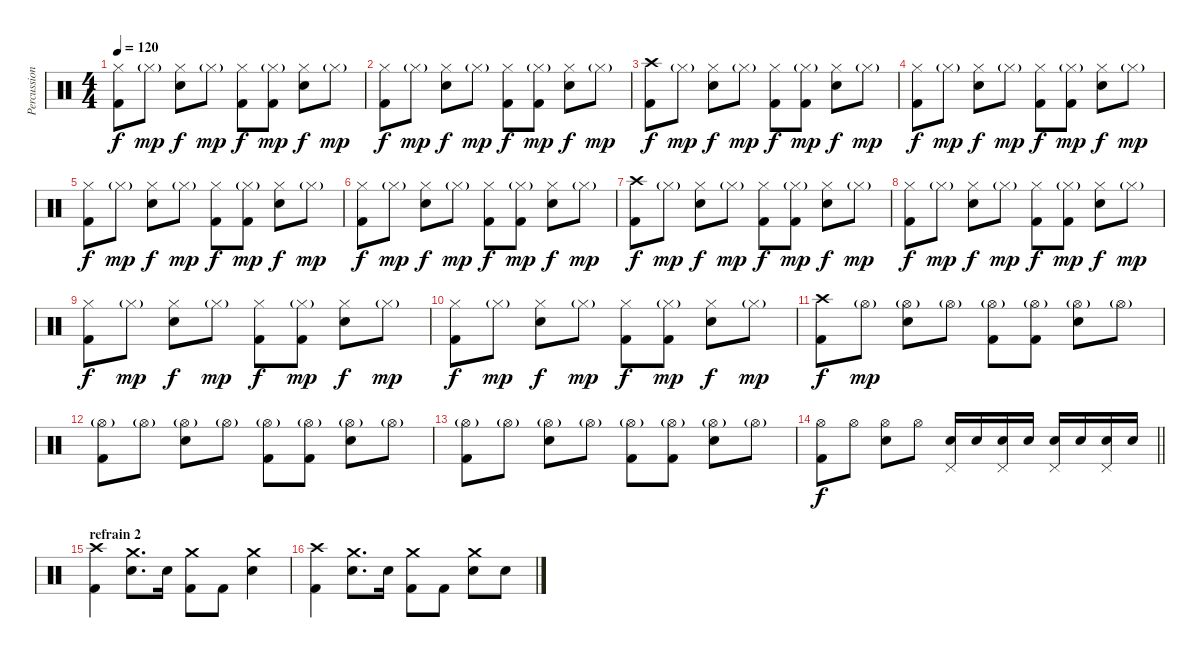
\track ("Percussions" "Percussion") {instrument percussion}
\staff {score}
\articulation defaults
\ts (4 4)
\tempo 120
\clef neutral
\ks c
("Hi-Hat (closed)" "Kick (hit) 2").8{dy f} "Hi-Hat (closed)"{g}.8{dy mp} ("Hi-Hat (closed)" "Snare (hit) 2").8{dy f} "Hi-Hat (closed)"{g}.8{dy mp} ("Hi-Hat (closed)" "Kick (hit) 2").8{dy f} ("Hi-Hat (closed)"{g} "Kick (hit) 2").8{dy mp} ("Hi-Hat (closed)" "Snare (hit) 2").8{dy f} "Hi-Hat (closed)"{g}.8{dy mp} |
("Hi-Hat (closed)" "Kick (hit) 2").8{dy f} "Hi-Hat (closed)"{g}.8{dy mp} ("Hi-Hat (closed)" "Snare (hit) 2").8{dy f} "Hi-Hat (closed)"{g}.8{dy mp} ("Hi-Hat (closed)" "Kick (hit) 2").8{dy f} ("Hi-Hat (closed)"{g} "Kick (hit) 2").8{dy mp} ("Hi-Hat (closed)" "Snare (hit) 2").8{dy f} "Hi-Hat (closed)"{g}.8{dy mp} |
("Crash high (hit)" "Kick (hit) 2").8{dy f} "Hi-Hat (closed)"{g}.8{dy mp} ("Hi-Hat (closed)" "Snare (hit) 2").8{dy f} "Hi-Hat (closed)"{g}.8{dy mp} ("Hi-Hat (closed)" "Kick (hit) 2").8{dy f} ("Hi-Hat (closed)"{g} "Kick (hit) 2").8{dy mp} ("Hi-Hat (closed)" "Snare (hit) 2").8{dy f} "Hi-Hat (closed)"{g}.8{dy mp} |
("Hi-Hat (closed)" "Kick (hit) 2").8{dy f} "Hi-Hat (closed)"{g}.8{dy mp} ("Hi-Hat (closed)" "Snare (hit) 2").8{dy f} "Hi-Hat (closed)"{g}.8{dy mp} ("Hi-Hat (closed)" "Kick (hit) 2").8{dy f} ("Hi-Hat (closed)"{g} "Kick (hit) 2").8{dy mp} ("Hi-Hat (closed)" "Snare (hit) 2").8{dy f} "Hi-Hat (closed)"{g}.8{dy mp} |
("Hi-Hat (closed)" "Kick (hit) 2").8{dy f} "Hi-Hat (closed)"{g}.8{dy mp} ("Hi-Hat (closed)" "Snare (hit) 2").8{dy f} "Hi-Hat (closed)"{g}.8{dy mp} ("Hi-Hat (closed)" "Kick (hit) 2").8{dy f} ("Hi-Hat (closed)"{g} "Kick (hit) 2").8{dy mp} ("Hi-Hat (closed)" "Snare (hit) 2").8{dy f} "Hi-Hat (closed)"{g}.8{dy mp} |
("Hi-Hat (closed)" "Kick (hit) 2").8{dy f} "Hi-Hat (closed)"{g}.8{dy mp} ("Hi-Hat (closed)" "Snare (hit) 2").8{dy f} "Hi-Hat (closed)"{g}.8{dy mp} ("Hi-Hat (closed)" "Kick (hit) 2").8{dy f} ("Hi-Hat (closed)"{g} "Kick (hit) 2").8{dy mp} ("Hi-Hat (closed)" "Snare (hit) 2").8{dy f} "Hi-Hat (closed)"{g}.8{dy mp} |
("Crash high (hit)" "Kick (hit) 2").8{dy f} "Hi-Hat (closed)"{g}.8{dy mp} ("Hi-Hat (closed)" "Snare (hit) 2").8{dy f} "Hi-Hat (closed)"{g}.8{dy mp} ("Hi-Hat (closed)" "Kick (hit) 2").8{dy f} ("Hi-Hat (closed)"{g} "Kick (hit) 2").8{dy mp} ("Hi-Hat (closed)" "Snare (hit) 2").8{dy f} "Hi-Hat (closed)"{g}.8{dy mp} |
("Hi-Hat (closed)" "Kick (hit) 2").8{dy f} "Hi-Hat (closed)"{g}.8{dy mp} ("Hi-Hat (closed)" "Snare (hit) 2").8{dy f} "Hi-Hat (closed)"{g}.8{dy mp} ("Hi-Hat (closed)" "Kick (hit) 2").8{dy f} ("Hi-Hat (closed)"{g} "Kick (hit) 2").8{dy mp} ("Hi-Hat (closed)" "Snare (hit) 2").8{dy f} "Hi-Hat (closed)"{g}.8{dy mp} |
("Hi-Hat (closed)" "Kick (hit) 2").8{dy f} "Hi-Hat (closed)"{g}.8{dy mp} ("Hi-Hat (closed)" "Snare (hit) 2").8{dy f} "Hi-Hat (closed)"{g}.8{dy mp} ("Hi-Hat (closed)" "Kick (hit) 2").8{dy f} ("Hi-Hat (closed)"{g} "Kick (hit) 2").8{dy mp} ("Hi-Hat (closed)" "Snare (hit) 2").8{dy f} "Hi-Hat (closed)"{g}.8{dy mp} |
("Hi-Hat (closed)" "Kick (hit) 2").8{dy f} "Hi-Hat (closed)"{g}.8{dy mp} ("Hi-Hat (closed)" "Snare (hit) 2").8{dy f} "Hi-Hat (closed)"{g}.8{dy mp} ("Hi-Hat (closed)" "Kick (hit) 2").8{dy f} ("Hi-Hat (closed)"{g} "Kick (hit) 2").8{dy mp} ("Hi-Hat (closed)" "Snare (hit) 2").8{dy f} "Hi-Hat (closed)"{g}.8{dy mp} |
("Crash high (hit)" "Kick (hit) 2").8{dy f} "Hi-Hat (open)"{g}.8{dy mp} ("Hi-Hat (open)"{g} "Snare (hit) 2").8 "Hi-Hat (open)"{g}.8 ("Hi-Hat (open)"{g} "Kick (hit) 2").8 ("Hi-Hat (open)"{g} "Kick (hit) 2").8 ("Hi-Hat (open)"{g} "Snare (hit) 2").8 "Hi-Hat (open)"{g}.8 |
("Hi-Hat (open)"{g} "Kick (hit) 2").8 "Hi-Hat (open)"{g}.8 ("Hi-Hat (open)"{g} "Snare (hit) 2").8 "Hi-Hat (open)"{g}.8 ("Hi-Hat (open)"{g} "Kick (hit) 2").8 ("Hi-Hat (open)"{g} "Kick (hit) 2").8 ("Hi-Hat (open)"{g} "Snare (hit) 2").8 "Hi-Hat (open)"{g}.8 |
("Hi-Hat (open)"{g} "Kick (hit) 2").8 "Hi-Hat (open)"{g}.8 ("Hi-Hat (open)"{g} "Snare (hit) 2").8 "Hi-Hat (open)"{g}.8 ("Hi-Hat (open)"{g} "Kick (hit) 2").8 ("Hi-Hat (open)"{g} "Kick (hit) 2").8 ("Hi-Hat (open)"{g} "Snare (hit) 2").8 "Hi-Hat (open)"{g}.8 |
\barLineRight lightlight
("Hi-Hat (open)" "Kick (hit) 2").8{dy f} "Hi-Hat (open)".8 ("Hi-Hat (open)" "Snare (hit) 2").8 "Hi-Hat (open)".8 ("Pedal Hi-Hat (hit)" "Snare (hit) 2").16 "Snare (hit) 2".16 ("Pedal Hi-Hat (hit)" "Snare (hit) 2").16 "Snare (hit) 2".16 ("Pedal Hi-Hat (hit)" "Snare (hit) 2").16 "Snare (hit) 2".16 ("Pedal Hi-Hat (hit)" "Snare (hit) 2").16 "Snare (hit) 2".16 |
\section ("" "refrain 2")
("Crash high (hit)" "Kick (hit) 2").4 ("Crash medium (hit)" "Snare (hit) 2").8{d} "Snare (hit) 2".16 ("Crash medium (hit)" "Kick (hit) 2").8 "Kick (hit) 2".8 ("Crash medium (hit)" "Snare (hit) 2").4 |
("Crash high (hit)" "Kick (hit) 2").4 ("Crash medium (hit)" "Snare (hit) 2").8{d} "Snare (hit) 2".16 ("Crash medium (hit)" "Kick (hit) 2").8 "Kick (hit) 2".8 ("Crash medium (hit)" "Snare (hit) 2").8 "Snare (hit) 2".8
